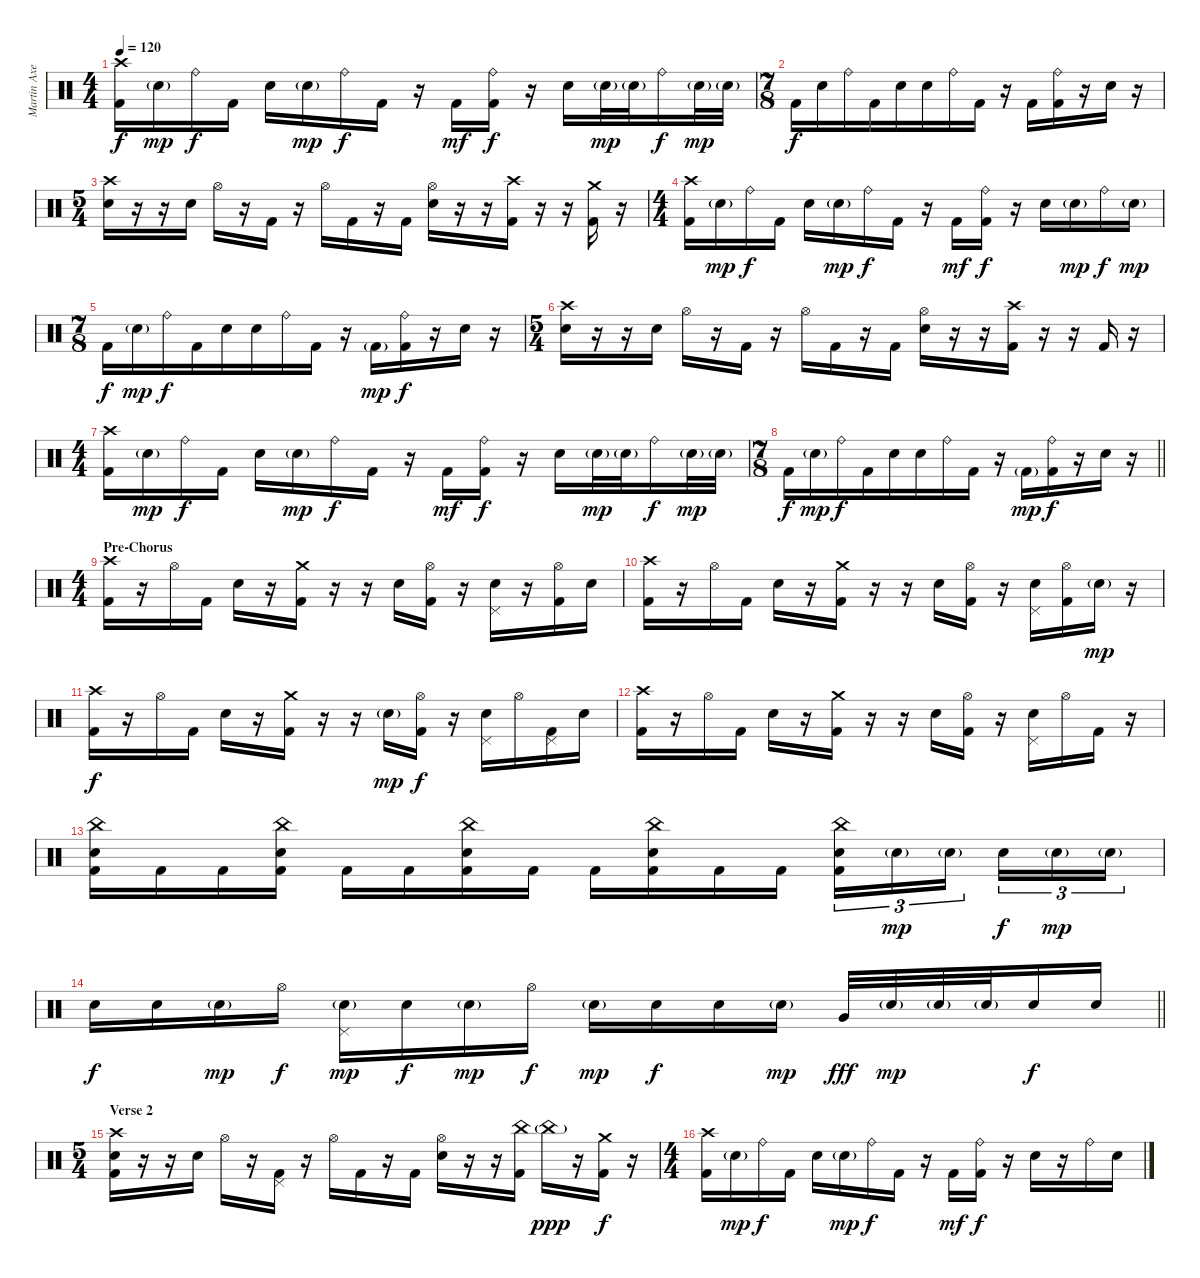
\track ("Martin Axenrot - Drums" "Martin Axe") {instrument percussion}
\staff {score}
\articulation defaults
\ts (4 4)
\tempo 120
\clef neutral
\ks c
("Crash high (hit)" "Kick (hit) 2").16{dy f} "Snare (hit) 2"{g}.16{dy mp} "Ride (bell)".16{dy f} "Kick (hit) 2".16 "Snare (hit) 2".16 "Snare (hit) 2"{g}.16{dy mp} "Ride (bell)".16{dy f} "Kick (hit) 2".16 r.16 "Kick (hit) 2".16{dy mf} ("Ride (bell)" "Kick (hit) 2").16{dy f} r.16 "Snare (hit) 2".16 "Snare (hit) 2"{g}.32{dy mp} "Snare (hit) 2"{g}.32 "Ride (bell)".16{dy f} "Snare (hit) 2"{g}.32{dy mp} "Snare (hit) 2"{g}.32 |
\ts (7 8)
"Kick (hit) 2".16{dy f} "Snare (hit) 2".16 "Ride (bell)".16 "Kick (hit) 2".16 "Snare (hit) 2".16 "Snare (hit) 2".16 "Ride (bell)".16 "Kick (hit) 2".16 r.16 "Kick (hit) 2".16 ("Ride (bell)" "Kick (hit) 2").16 r.16 "Snare (hit) 2".16 r.16 |
\ts (5 4)
("Crash high (hit)" "Snare (hit) 2").16 r.16 r.16 "Snare (hit) 2".16 "Hi-Hat (open)".16 r.16 "Kick (hit) 2".16 r.16 "Hi-Hat (open)".16 "Kick (hit) 2".16 r.16 "Kick (hit) 2".16 ("Hi-Hat (open)" "Snare (hit) 2").16 r.16 r.16 ("Crash high (hit)" "Kick (hit) 2").16 r.16 r.16 ("Crash medium (hit)" "Kick (hit) 2").16 r.16 |
\ts (4 4)
("Crash high (hit)" "Kick (hit) 2").16 "Snare (hit) 2"{g}.16{dy mp} "Ride (bell)".16{dy f} "Kick (hit) 2".16 "Snare (hit) 2".16 "Snare (hit) 2"{g}.16{dy mp} "Ride (bell)".16{dy f} "Kick (hit) 2".16 r.16 "Kick (hit) 2".16{dy mf} ("Ride (bell)" "Kick (hit) 2").16{dy f} r.16 "Snare (hit) 2".16 "Snare (hit) 2"{g}.16{dy mp} "Ride (bell)".16{dy f} "Snare (hit) 2"{g}.16{dy mp} |
\ts (7 8)
"Kick (hit) 2".16{dy f} "Snare (hit) 2"{g}.16{dy mp} "Ride (bell)".16{dy f} "Kick (hit) 2".16 "Snare (hit) 2".16 "Snare (hit) 2".16 "Ride (bell)".16 "Kick (hit) 2".16 r.16 "Kick (hit) 2"{g}.16{dy mp} ("Ride (bell)" "Kick (hit) 2").16{dy f} r.16 "Snare (hit) 2".16 r.16 |
\ts (5 4)
("Crash high (hit)" "Snare (hit) 2").16 r.16 r.16 "Snare (hit) 2".16 "Hi-Hat (open)".16 r.16 "Kick (hit) 2".16 r.16 "Hi-Hat (open)".16 "Kick (hit) 2".16 r.16 "Kick (hit) 2".16 ("Hi-Hat (open)" "Snare (hit) 2").16 r.16 r.16 ("Crash high (hit)" "Kick (hit) 2").16 r.16 r.16 "Kick (hit) 2".16 r.16 |
\ts (4 4)
("Crash high (hit)" "Kick (hit) 2").16 "Snare (hit) 2"{g}.16{dy mp} "Ride (bell)".16{dy f} "Kick (hit) 2".16 "Snare (hit) 2".16 "Snare (hit) 2"{g}.16{dy mp} "Ride (bell)".16{dy f} "Kick (hit) 2".16 r.16 "Kick (hit) 2".16{dy mf} ("Ride (bell)" "Kick (hit) 2").16{dy f} r.16 "Snare (hit) 2".16 "Snare (hit) 2"{g}.32{dy mp} "Snare (hit) 2"{g}.32 "Ride (bell)".16{dy f} "Snare (hit) 2"{g}.32{dy mp} "Snare (hit) 2"{g}.32 |
\ts (7 8)
\barLineRight lightlight "Kick (hit) 2".16{dy f} "Snare (hit) 2"{g}.16{dy mp} "Ride (bell)".16{dy f} "Kick (hit) 2".16 "Snare (hit) 2".16 "Snare (hit) 2".16 "Ride (bell)".16 "Kick (hit) 2".16
r.16 "Kick (hit) 2"{g}.16{dy mp} ("Ride (bell)" "Kick (hit) 2").16{dy f} r.16 "Snare (hit) 2".16 r.16 |
\ts (4 4)
\section ("" "Pre-Chorus")
("Crash high (hit)" "Kick (hit) 2").16 r.16 "Hi-Hat (open)".16 "Kick (hit) 2".16 "Snare (hit) 2".16 r.16 ("Crash medium (hit)" "Kick (hit) 2").16 r.16 r.16 "Snare (hit) 2".16 ("Hi-Hat (open)" "Kick (hit) 2").16 r.16 ("Snare (hit) 2" "Pedal Hi-Hat (hit)").16 r.16 ("Hi-Hat (open)" "Kick (hit) 2").16 "Snare (hit) 2".16 |
("Crash high (hit)" "Kick (hit) 2").16 r.16 "Hi-Hat (open)".16 "Kick (hit) 2".16 "Snare (hit) 2".16 r.16 ("Crash medium (hit)" "Kick (hit) 2").16 r.16 r.16 "Snare (hit) 2".16 ("Hi-Hat (open)" "Kick (hit) 2").16 r.16 ("Snare (hit) 2" "Pedal Hi-Hat (hit)").16 ("Hi-Hat (open)" "Kick (hit) 2").16 "Snare (hit) 2"{g}.16{dy mp} r.16 |
("Crash high (hit)" "Kick (hit) 2").16{dy f} r.16 "Hi-Hat (open)".16 "Kick (hit) 2".16 "Snare (hit) 2".16 r.16 ("Crash medium (hit)" "Kick (hit) 2").16 r.16 r.16 "Snare (hit) 2"{g}.16{dy mp} ("Hi-Hat (open)" "Kick (hit) 2").16{dy f} r.16 ("Snare (hit) 2" "Pedal Hi-Hat (hit)").16 "Hi-Hat (open)".16 ("Pedal Hi-Hat (hit)" "Kick (hit) 2").16 "Snare (hit) 2".16 |
("Crash high (hit)" "Kick (hit) 2").16 r.16 "Hi-Hat (open)".16 "Kick (hit) 2".16 "Snare (hit) 2".16 r.16 ("Crash medium (hit)" "Kick (hit) 2").16 r.16 r.16 "Snare (hit) 2".16 ("Hi-Hat (open)" "Kick (hit) 2").16 r.16 ("Snare (hit) 2" "Pedal Hi-Hat (hit)").16 "Hi-Hat (open)".16 "Kick (hit) 2".16 r.16 |
("China (hit)" "Snare (hit) 2" "Kick (hit) 2").16 "Kick (hit) 2".16 "Kick (hit) 2".16 ("China (hit)" "Snare (hit) 2" "Kick (hit) 2").16 "Kick (hit) 2".16 "Kick (hit) 2".16 ("China (hit)" "Snare (hit) 2" "Kick (hit) 2").16 "Kick (hit) 2".16 "Kick (hit) 2".16 ("China (hit)" "Snare (hit) 2" "Kick (hit) 2").16 "Kick (hit) 2".16 "Kick (hit) 2".16 ("China (hit)" "Snare (hit) 2" "Kick (hit) 2").16{tu (3 2)} "Snare (hit) 2"{g}.16{tu (3 2) dy mp} "Snare (hit) 2"{g}.16{tu (3 2) beam splitsecondary} "Snare (hit) 2".16{tu (3 2) dy f} "Snare (hit) 2"{g}.16{tu (3 2) dy mp} "Snare (hit) 2"{g}.16{tu (3 2)} |
\barLineRight lightlight "Snare (hit) 2".16{dy f} "Snare (hit) 2".16 "Snare (hit) 2"{g}.16{dy mp} "Hi-Hat (open)".16{dy f}
("Snare (hit) 2"{g} "Pedal Hi-Hat (hit)").16{dy mp} "Snare (hit) 2".16{dy f} "Snare (hit) 2"{g}.16{dy mp} "Hi-Hat (open)".16{dy f} "Snare (hit) 2"{g}.16{dy mp} "Snare (hit) 2".16{dy f} "Snare (hit) 2".16 "Snare (hit) 2"{g}.16{dy mp} "Very Low Tom (hit)".32{dy fff} "Snare (hit) 2"{g}.32{dy mp} "Snare (hit) 2"{g}.32 "Snare (hit) 2"{g}.32 "Snare (hit) 2".16{dy f} "Snare (hit) 2".16 |
\ts (5 4)
\section ("" "Verse 2")
("Crash high (hit)" "Snare (hit) 2" "Kick (hit) 2").16 r.16 r.16 "Snare (hit) 2".16 "Hi-Hat (open)".16 r.16 ("Pedal Hi-Hat (hit)" "Kick (hit) 2").16 r.16 "Hi-Hat (open)".16 "Kick (hit) 2".16 r.16 "Kick (hit) 2".16 ("Hi-Hat (open)" "Snare (hit) 2").16 r.16 r.16 ("China (hit)" "Kick (hit) 2").16 "China (hit)"{g}.16{dy ppp} r.16 ("Crash medium (hit)" "Kick (hit) 2").16{dy f} r.16 |
\ts (4 4)
("Crash high (hit)" "Kick (hit) 2").16 "Snare (hit) 2"{g}.16{dy mp} "Ride (bell)".16{dy f} "Kick (hit) 2".16 "Snare (hit) 2".16 "Snare (hit) 2"{g}.16{dy mp} "Ride (bell)".16{dy f} "Kick (hit) 2".16 r.16 "Kick (hit) 2".16{dy mf} ("Ride (bell)" "Kick (hit) 2").16{dy f} r.16 "Snare (hit) 2".16 r.16 "Ride (bell)".16 "Snare (hit) 2".16
